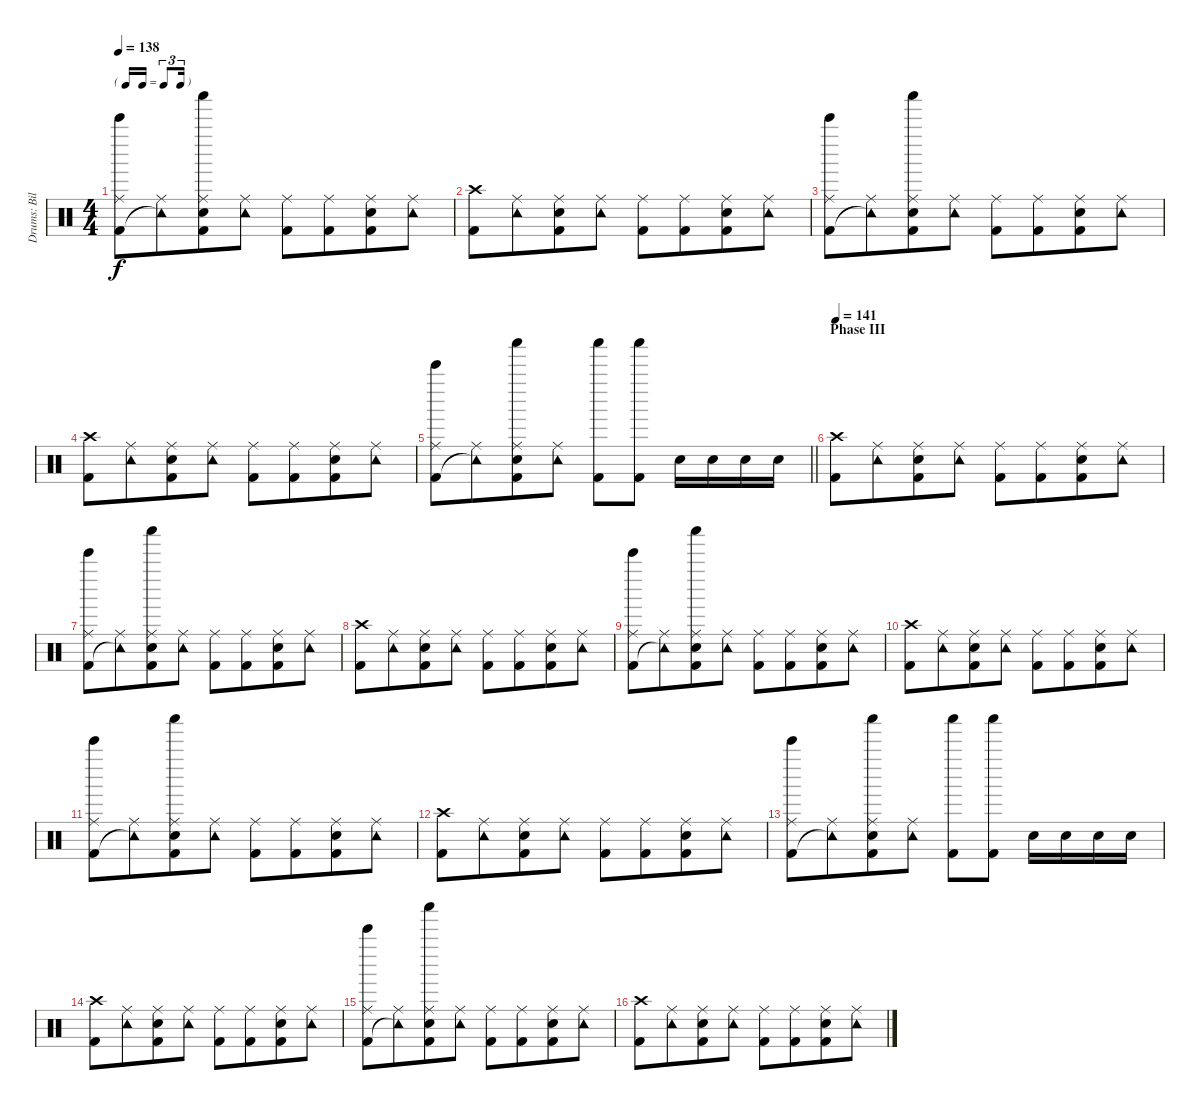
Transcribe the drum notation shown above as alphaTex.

\track ("Drums: Bill" "Drums: Bil") {instrument percussion}
\staff {score}
\articulation defaults
\ts (4 4)
\tf triplet16th
\tempo 138
\clef neutral
\ks c
("Ride (middle)" "Kick (hit) 2" "Bell Tree (hit)").8{dy f} ("Ride (middle)" "Tambourine (hit)"{t}).8{beam merge} ("Ride (middle)" "Electric Snare (hit)" "Kick (hit) 2" "Shaker (hit)").8 ("Ride (middle)" "Tambourine (hit)").8 ("Ride (middle)" "Kick (hit) 2").8 ("Ride (middle)" "Kick (hit) 2").8{beam merge} ("Ride (middle)" "Electric Snare (hit)" "Kick (hit) 2").8 ("Ride (middle)" "Tambourine (hit)").8 |
("Crash high (hit)" "Kick (hit) 2").8 ("Ride (middle)" "Tambourine (hit)").8{beam merge} ("Ride (middle)" "Electric Snare (hit)" "Kick (hit) 2").8 ("Ride (middle)" "Tambourine (hit)").8 ("Ride (middle)" "Kick (hit) 2").8 ("Ride (middle)" "Kick (hit) 2").8{beam merge} ("Ride (middle)" "Electric Snare (hit)" "Kick (hit) 2").8 ("Ride (middle)" "Tambourine (hit)").8 |
("Ride (middle)" "Kick (hit) 2" "Bell Tree (hit)").8 ("Ride (middle)" "Tambourine (hit)"{t}).8{beam merge} ("Ride (middle)" "Electric Snare (hit)" "Kick (hit) 2" "Shaker (hit)").8 ("Ride (middle)" "Tambourine (hit)").8 ("Ride (middle)" "Kick (hit) 2").8 ("Ride (middle)" "Kick (hit) 2").8{beam merge} ("Ride (middle)" "Electric Snare (hit)" "Kick (hit) 2").8 ("Ride (middle)" "Tambourine (hit)").8 |
("Crash high (hit)" "Kick (hit) 2").8 ("Ride (middle)" "Tambourine (hit)").8{beam merge} ("Ride (middle)" "Electric Snare (hit)" "Kick (hit) 2").8 ("Ride (middle)" "Tambourine (hit)").8 ("Ride (middle)" "Kick (hit) 2").8 ("Ride (middle)" "Kick (hit) 2").8{beam merge} ("Ride (middle)" "Electric Snare (hit)" "Kick (hit) 2").8 ("Ride (middle)" "Tambourine (hit)").8 |
\barLineRight lightlight
("Ride (middle)" "Kick (hit) 2" "Bell Tree (hit)").8 ("Ride (middle)" "Tambourine (hit)"{t}).8{beam merge} ("Ride (middle)" "Electric Snare (hit)" "Kick (hit) 2" "Shaker (hit)").8 ("Ride (middle)" "Tambourine (hit)").8 ("Shaker (hit)" "Kick (hit) 2").8 ("Shaker (hit)" "Kick (hit) 2").8 "Electric Snare (hit)".16 "Electric Snare (hit)".16 "Electric Snare (hit)".16 "Electric Snare (hit)".16 |
\section ("" "Phase III")
\tempo 141
("Crash high (hit)" "Kick (hit) 2").8 ("Ride (middle)" "Tambourine (hit)").8{beam merge} ("Ride (middle)" "Electric Snare (hit)" "Kick (hit) 2").8 ("Ride (middle)" "Tambourine (hit)").8 ("Ride (middle)" "Kick (hit) 2").8 ("Ride (middle)" "Kick (hit) 2").8{beam merge} ("Ride (middle)" "Electric Snare (hit)" "Kick (hit) 2").8 ("Ride (middle)" "Tambourine (hit)").8 |
("Ride (middle)" "Kick (hit) 2" "Bell Tree (hit)").8 ("Ride (middle)" "Tambourine (hit)"{t}).8{beam merge} ("Ride (middle)" "Electric Snare (hit)" "Kick (hit) 2" "Shaker (hit)").8 ("Ride (middle)" "Tambourine (hit)").8 ("Ride (middle)" "Kick (hit) 2").8 ("Ride (middle)" "Kick (hit) 2").8{beam merge} ("Ride (middle)" "Electric Snare (hit)" "Kick (hit) 2").8 ("Ride (middle)" "Tambourine (hit)").8 |
("Crash high (hit)" "Kick (hit) 2").8 ("Ride (middle)" "Tambourine (hit)").8{beam merge} ("Ride (middle)" "Electric Snare (hit)" "Kick (hit) 2").8 ("Ride (middle)" "Tambourine (hit)").8 ("Ride (middle)" "Kick (hit) 2").8 ("Ride (middle)" "Kick (hit) 2").8{beam merge} ("Ride (middle)" "Electric Snare (hit)" "Kick (hit) 2").8 ("Ride (middle)" "Tambourine (hit)").8 |
("Ride (middle)" "Kick (hit) 2" "Bell Tree (hit)").8 ("Ride (middle)" "Tambourine (hit)"{t}).8{beam merge} ("Ride (middle)" "Electric Snare (hit)" "Kick (hit) 2" "Shaker (hit)").8 ("Ride (middle)" "Tambourine (hit)").8 ("Ride (middle)" "Kick (hit) 2").8 ("Ride (middle)" "Kick (hit) 2").8{beam merge} ("Ride (middle)" "Electric Snare (hit)" "Kick (hit) 2").8 ("Ride (middle)" "Tambourine (hit)").8 |
("Crash high (hit)" "Kick (hit) 2").8 ("Ride (middle)" "Tambourine (hit)").8{beam merge} ("Ride (middle)" "Electric Snare (hit)" "Kick (hit) 2").8 ("Ride (middle)" "Tambourine (hit)").8 ("Ride (middle)" "Kick (hit) 2").8 ("Ride (middle)" "Kick (hit) 2").8{beam merge} ("Ride (middle)" "Electric Snare (hit)" "Kick (hit) 2").8 ("Ride (middle)" "Tambourine (hit)").8 |
("Ride (middle)" "Kick (hit) 2" "Bell Tree (hit)").8 ("Ride (middle)" "Tambourine (hit)"{t}).8{beam merge} ("Ride (middle)" "Electric Snare (hit)" "Kick (hit) 2" "Shaker (hit)").8 ("Ride (middle)" "Tambourine (hit)").8 ("Ride (middle)" "Kick (hit) 2").8 ("Ride (middle)" "Kick (hit) 2").8{beam merge} ("Ride (middle)" "Electric Snare (hit)" "Kick (hit) 2").8 ("Ride (middle)" "Tambourine (hit)").8 |
("Crash high (hit)" "Kick (hit) 2").8 ("Ride (middle)" "Tambourine (hit)").8{beam merge} ("Ride (middle)" "Electric Snare (hit)" "Kick (hit) 2").8 ("Ride (middle)" "Tambourine (hit)").8 ("Ride (middle)" "Kick (hit) 2").8 ("Ride (middle)" "Kick (hit) 2").8{beam merge} ("Ride (middle)" "Electric Snare (hit)" "Kick (hit) 2").8 ("Ride (middle)" "Tambourine (hit)").8 |
("Ride (middle)" "Kick (hit) 2" "Bell Tree (hit)").8 ("Ride (middle)" "Tambourine (hit)"{t}).8{beam merge} ("Ride (middle)" "Electric Snare (hit)" "Kick (hit) 2" "Shaker (hit)").8 ("Ride (middle)" "Tambourine (hit)").8 ("Shaker (hit)" "Kick (hit) 2").8 ("Shaker (hit)" "Kick (hit) 2").8 "Electric Snare (hit)".16 "Electric Snare (hit)".16 "Electric Snare (hit)".16 "Electric Snare (hit)".16 |
("Crash high (hit)" "Kick (hit) 2").8 ("Ride (middle)" "Tambourine (hit)").8{beam merge} ("Ride (middle)" "Electric Snare (hit)" "Kick (hit) 2").8 ("Ride (middle)" "Tambourine (hit)").8 ("Ride (middle)" "Kick (hit) 2").8 ("Ride (middle)" "Kick (hit) 2").8{beam merge} ("Ride (middle)" "Electric Snare (hit)" "Kick (hit) 2").8 ("Ride (middle)" "Tambourine (hit)").8 |
("Ride (middle)" "Kick (hit) 2" "Bell Tree (hit)").8 ("Ride (middle)" "Tambourine (hit)"{t}).8{beam merge} ("Ride (middle)" "Electric Snare (hit)" "Kick (hit) 2" "Shaker (hit)").8 ("Ride (middle)" "Tambourine (hit)").8 ("Ride (middle)" "Kick (hit) 2").8 ("Ride (middle)" "Kick (hit) 2").8{beam merge} ("Ride (middle)" "Electric Snare (hit)" "Kick (hit) 2").8 ("Ride (middle)" "Tambourine (hit)").8 |
("Crash high (hit)" "Kick (hit) 2").8 ("Ride (middle)" "Tambourine (hit)").8{beam merge} ("Ride (middle)" "Electric Snare (hit)" "Kick (hit) 2").8 ("Ride (middle)" "Tambourine (hit)").8 ("Ride (middle)" "Kick (hit) 2").8 ("Ride (middle)" "Kick (hit) 2").8{beam merge} ("Ride (middle)" "Electric Snare (hit)" "Kick (hit) 2").8 ("Ride (middle)" "Tambourine (hit)").8
